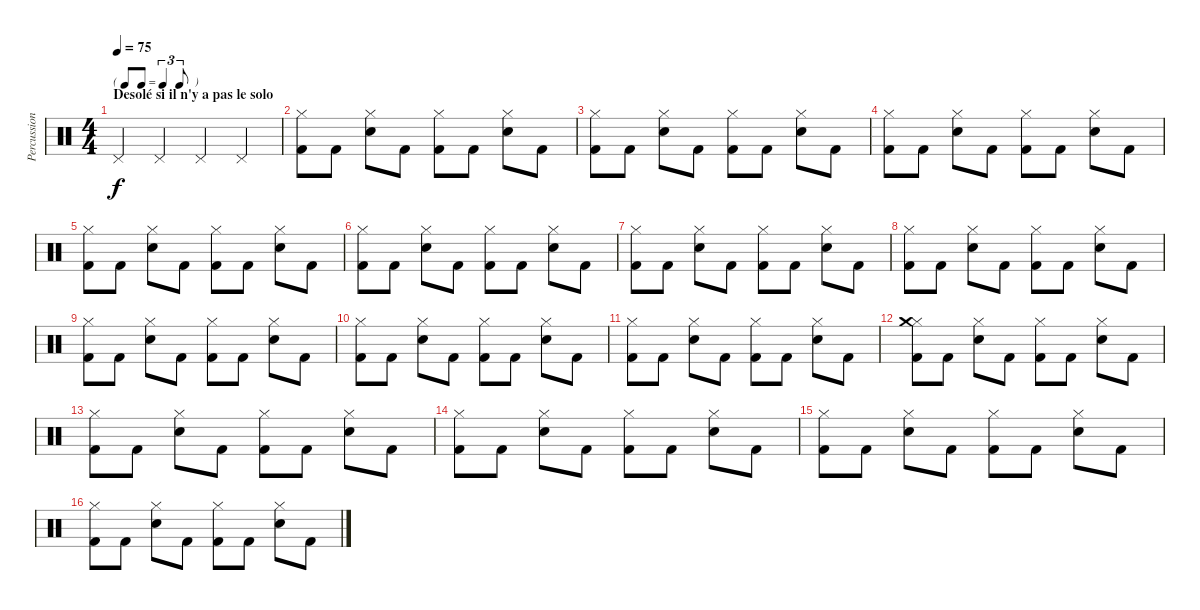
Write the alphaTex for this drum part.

\track ("Percussions" "Percussion") {instrument percussion}
\staff {score}
\articulation defaults
\ts (4 4)
\tf triplet8th
\section ("" "Desolé si il n'y a pas le solo")
\tempo 75
\clef neutral
\ks c "Pedal Hi-Hat (hit)".4{dy f} "Pedal Hi-Hat (hit)".4 "Pedal Hi-Hat (hit)".4 "Pedal Hi-Hat (hit)".4
|
("Hi-Hat (closed)" "Kick (hit) 2").8 "Kick (hit) 2".8 ("Hi-Hat (closed)" "Snare (hit) 2").8 "Kick (hit) 2".8 ("Hi-Hat (closed)" "Kick (hit) 2").8 "Kick (hit) 2".8 ("Hi-Hat (closed)" "Snare (hit) 2").8 "Kick (hit) 2".8 |
("Hi-Hat (closed)" "Kick (hit) 2").8 "Kick (hit) 2".8 ("Hi-Hat (closed)" "Snare (hit) 2").8 "Kick (hit) 2".8 ("Hi-Hat (closed)" "Kick (hit) 2").8 "Kick (hit) 2".8 ("Hi-Hat (closed)" "Snare (hit) 2").8 "Kick (hit) 2".8 |
("Hi-Hat (closed)" "Kick (hit) 2").8 "Kick (hit) 2".8 ("Hi-Hat (closed)" "Snare (hit) 2").8 "Kick (hit) 2".8 ("Hi-Hat (closed)" "Kick (hit) 2").8 "Kick (hit) 2".8 ("Hi-Hat (closed)" "Snare (hit) 2").8 "Kick (hit) 2".8 |
("Hi-Hat (closed)" "Kick (hit) 2").8 "Kick (hit) 2".8 ("Hi-Hat (closed)" "Snare (hit) 2").8 "Kick (hit) 2".8 ("Hi-Hat (closed)" "Kick (hit) 2").8 "Kick (hit) 2".8 ("Hi-Hat (closed)" "Snare (hit) 2").8 "Kick (hit) 2".8 |
("Hi-Hat (closed)" "Kick (hit) 2").8 "Kick (hit) 2".8 ("Hi-Hat (closed)" "Snare (hit) 2").8 "Kick (hit) 2".8 ("Hi-Hat (closed)" "Kick (hit) 2").8 "Kick (hit) 2".8 ("Hi-Hat (closed)" "Snare (hit) 2").8 "Kick (hit) 2".8 |
("Hi-Hat (closed)" "Kick (hit) 2").8 "Kick (hit) 2".8 ("Hi-Hat (closed)" "Snare (hit) 2").8 "Kick (hit) 2".8 ("Hi-Hat (closed)" "Kick (hit) 2").8 "Kick (hit) 2".8 ("Hi-Hat (closed)" "Snare (hit) 2").8 "Kick (hit) 2".8 |
("Hi-Hat (closed)" "Kick (hit) 2").8 "Kick (hit) 2".8 ("Hi-Hat (closed)" "Snare (hit) 2").8 "Kick (hit) 2".8 ("Hi-Hat (closed)" "Kick (hit) 2").8 "Kick (hit) 2".8 ("Hi-Hat (closed)" "Snare (hit) 2").8 "Kick (hit) 2".8 |
("Hi-Hat (closed)" "Kick (hit) 2").8 "Kick (hit) 2".8 ("Hi-Hat (closed)" "Snare (hit) 2").8 "Kick (hit) 2".8 ("Hi-Hat (closed)" "Kick (hit) 2").8 "Kick (hit) 2".8 ("Hi-Hat (closed)" "Snare (hit) 2").8 "Kick (hit) 2".8 |
("Hi-Hat (closed)" "Kick (hit) 2").8 "Kick (hit) 2".8 ("Hi-Hat (closed)" "Snare (hit) 2").8 "Kick (hit) 2".8 ("Hi-Hat (closed)" "Kick (hit) 2").8 "Kick (hit) 2".8 ("Hi-Hat (closed)" "Snare (hit) 2").8 "Kick (hit) 2".8 |
("Hi-Hat (closed)" "Kick (hit) 2").8 "Kick (hit) 2".8 ("Hi-Hat (closed)" "Snare (hit) 2").8 "Kick (hit) 2".8 ("Hi-Hat (closed)" "Kick (hit) 2").8 "Kick (hit) 2".8 ("Hi-Hat (closed)" "Snare (hit) 2").8 "Kick (hit) 2".8 |
("Hi-Hat (closed)" "Crash medium (hit)" "Kick (hit) 2").8 "Kick (hit) 2".8 ("Hi-Hat (closed)" "Snare (hit) 2").8 "Kick (hit) 2".8 ("Hi-Hat (closed)" "Kick (hit) 2").8 "Kick (hit) 2".8 ("Hi-Hat (closed)" "Snare (hit) 2").8 "Kick (hit) 2".8 |
("Hi-Hat (closed)" "Kick (hit) 2").8 "Kick (hit) 2".8 ("Hi-Hat (closed)" "Snare (hit) 2").8 "Kick (hit) 2".8 ("Hi-Hat (closed)" "Kick (hit) 2").8 "Kick (hit) 2".8 ("Hi-Hat (closed)" "Snare (hit) 2").8 "Kick (hit) 2".8 |
("Hi-Hat (closed)" "Kick (hit) 2").8 "Kick (hit) 2".8 ("Hi-Hat (closed)" "Snare (hit) 2").8 "Kick (hit) 2".8 ("Hi-Hat (closed)" "Kick (hit) 2").8 "Kick (hit) 2".8 ("Hi-Hat (closed)" "Snare (hit) 2").8 "Kick (hit) 2".8 |
("Hi-Hat (closed)" "Kick (hit) 2").8 "Kick (hit) 2".8 ("Hi-Hat (closed)" "Snare (hit) 2").8 "Kick (hit) 2".8 ("Hi-Hat (closed)" "Kick (hit) 2").8 "Kick (hit) 2".8 ("Hi-Hat (closed)" "Snare (hit) 2").8 "Kick (hit) 2".8 |
("Hi-Hat (closed)" "Kick (hit) 2").8 "Kick (hit) 2".8 ("Hi-Hat (closed)" "Snare (hit) 2").8 "Kick (hit) 2".8 ("Hi-Hat (closed)" "Kick (hit) 2").8 "Kick (hit) 2".8 ("Hi-Hat (closed)" "Snare (hit) 2").8 "Kick (hit) 2".8
